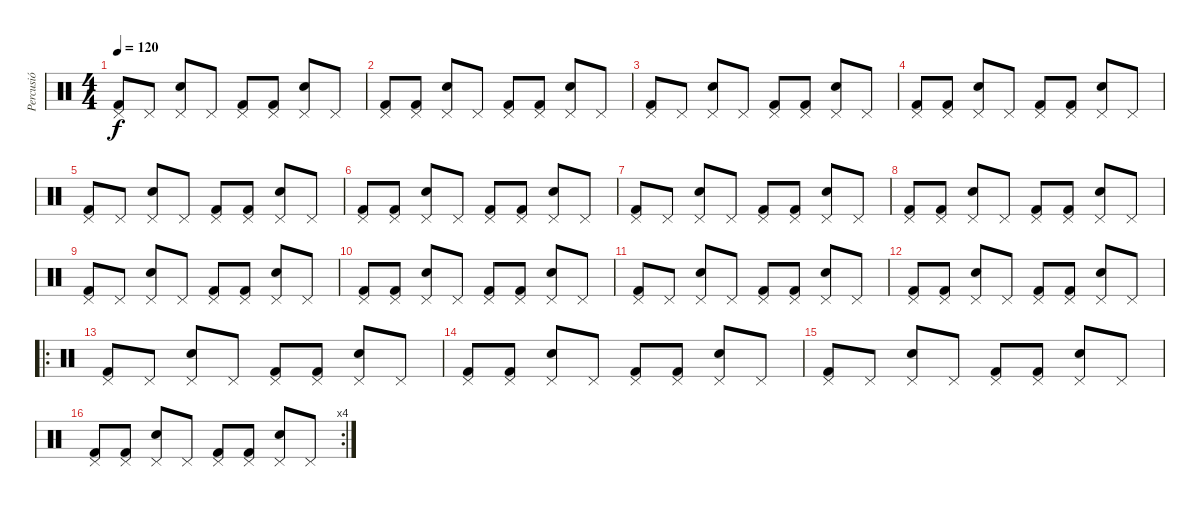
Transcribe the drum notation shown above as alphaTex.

\track ("Percusió" "Percusió") {instrument percussion}
\staff {score}
\articulation defaults
\ts (4 4)
\tempo 120
\clef neutral
\ks c
("Pedal Hi-Hat (hit)" "Kick (hit) 2").8{dy f} "Pedal Hi-Hat (hit)".8 ("Pedal Hi-Hat (hit)" "Snare (hit) 2").8 "Pedal Hi-Hat (hit)".8 ("Pedal Hi-Hat (hit)" "Kick (hit) 2").8 ("Pedal Hi-Hat (hit)" "Kick (hit) 2").8 ("Pedal Hi-Hat (hit)" "Snare (hit) 2").8 "Pedal Hi-Hat (hit)".8 |
("Pedal Hi-Hat (hit)" "Kick (hit) 2").8 ("Pedal Hi-Hat (hit)" "Kick (hit) 2").8 ("Pedal Hi-Hat (hit)" "Snare (hit) 2").8 "Pedal Hi-Hat (hit)".8 ("Pedal Hi-Hat (hit)" "Kick (hit) 2").8 ("Pedal Hi-Hat (hit)" "Kick (hit) 2").8 ("Pedal Hi-Hat (hit)" "Snare (hit) 2").8 "Pedal Hi-Hat (hit)".8 |
("Pedal Hi-Hat (hit)" "Kick (hit) 2").8 "Pedal Hi-Hat (hit)".8 ("Pedal Hi-Hat (hit)" "Snare (hit) 2").8 "Pedal Hi-Hat (hit)".8 ("Pedal Hi-Hat (hit)" "Kick (hit) 2").8 ("Pedal Hi-Hat (hit)" "Kick (hit) 2").8 ("Pedal Hi-Hat (hit)" "Snare (hit) 2").8 "Pedal Hi-Hat (hit)".8 |
("Pedal Hi-Hat (hit)" "Kick (hit) 2").8 ("Pedal Hi-Hat (hit)" "Kick (hit) 2").8 ("Pedal Hi-Hat (hit)" "Snare (hit) 2").8 "Pedal Hi-Hat (hit)".8 ("Pedal Hi-Hat (hit)" "Kick (hit) 2").8 ("Pedal Hi-Hat (hit)" "Kick (hit) 2").8 ("Pedal Hi-Hat (hit)" "Snare (hit) 2").8 "Pedal Hi-Hat (hit)".8 |
("Pedal Hi-Hat (hit)" "Kick (hit) 2").8 "Pedal Hi-Hat (hit)".8 ("Pedal Hi-Hat (hit)" "Snare (hit) 2").8 "Pedal Hi-Hat (hit)".8 ("Pedal Hi-Hat (hit)" "Kick (hit) 2").8 ("Pedal Hi-Hat (hit)" "Kick (hit) 2").8 ("Pedal Hi-Hat (hit)" "Snare (hit) 2").8 "Pedal Hi-Hat (hit)".8 |
("Pedal Hi-Hat (hit)" "Kick (hit) 2").8 ("Pedal Hi-Hat (hit)" "Kick (hit) 2").8 ("Pedal Hi-Hat (hit)" "Snare (hit) 2").8 "Pedal Hi-Hat (hit)".8 ("Pedal Hi-Hat (hit)" "Kick (hit) 2").8 ("Pedal Hi-Hat (hit)" "Kick (hit) 2").8 ("Pedal Hi-Hat (hit)" "Snare (hit) 2").8 "Pedal Hi-Hat (hit)".8 |
("Pedal Hi-Hat (hit)" "Kick (hit) 2").8 "Pedal Hi-Hat (hit)".8 ("Pedal Hi-Hat (hit)" "Snare (hit) 2").8 "Pedal Hi-Hat (hit)".8 ("Pedal Hi-Hat (hit)" "Kick (hit) 2").8 ("Pedal Hi-Hat (hit)" "Kick (hit) 2").8 ("Pedal Hi-Hat (hit)" "Snare (hit) 2").8 "Pedal Hi-Hat (hit)".8 |
("Pedal Hi-Hat (hit)" "Kick (hit) 2").8 ("Pedal Hi-Hat (hit)" "Kick (hit) 2").8 ("Pedal Hi-Hat (hit)" "Snare (hit) 2").8 "Pedal Hi-Hat (hit)".8 ("Pedal Hi-Hat (hit)" "Kick (hit) 2").8 ("Pedal Hi-Hat (hit)" "Kick (hit) 2").8 ("Pedal Hi-Hat (hit)" "Snare (hit) 2").8 "Pedal Hi-Hat (hit)".8 |
("Pedal Hi-Hat (hit)" "Kick (hit) 2").8 "Pedal Hi-Hat (hit)".8 ("Pedal Hi-Hat (hit)" "Snare (hit) 2").8 "Pedal Hi-Hat (hit)".8 ("Pedal Hi-Hat (hit)" "Kick (hit) 2").8 ("Pedal Hi-Hat (hit)" "Kick (hit) 2").8 ("Pedal Hi-Hat (hit)" "Snare (hit) 2").8 "Pedal Hi-Hat (hit)".8 |
("Pedal Hi-Hat (hit)" "Kick (hit) 2").8 ("Pedal Hi-Hat (hit)" "Kick (hit) 2").8 ("Pedal Hi-Hat (hit)" "Snare (hit) 2").8 "Pedal Hi-Hat (hit)".8 ("Pedal Hi-Hat (hit)" "Kick (hit) 2").8 ("Pedal Hi-Hat (hit)" "Kick (hit) 2").8 ("Pedal Hi-Hat (hit)" "Snare (hit) 2").8 "Pedal Hi-Hat (hit)".8 |
("Pedal Hi-Hat (hit)" "Kick (hit) 2").8 "Pedal Hi-Hat (hit)".8 ("Pedal Hi-Hat (hit)" "Snare (hit) 2").8 "Pedal Hi-Hat (hit)".8 ("Pedal Hi-Hat (hit)" "Kick (hit) 2").8 ("Pedal Hi-Hat (hit)" "Kick (hit) 2").8 ("Pedal Hi-Hat (hit)" "Snare (hit) 2").8 "Pedal Hi-Hat (hit)".8 |
("Pedal Hi-Hat (hit)" "Kick (hit) 2").8 ("Pedal Hi-Hat (hit)" "Kick (hit) 2").8 ("Pedal Hi-Hat (hit)" "Snare (hit) 2").8 "Pedal Hi-Hat (hit)".8 ("Pedal Hi-Hat (hit)" "Kick (hit) 2").8 ("Pedal Hi-Hat (hit)" "Kick (hit) 2").8 ("Pedal Hi-Hat (hit)" "Snare (hit) 2").8 "Pedal Hi-Hat (hit)".8 |
\ro
("Pedal Hi-Hat (hit)" "Kick (hit) 2").8 "Pedal Hi-Hat (hit)".8 ("Pedal Hi-Hat (hit)" "Snare (hit) 2").8 "Pedal Hi-Hat (hit)".8 ("Pedal Hi-Hat (hit)" "Kick (hit) 2").8 ("Pedal Hi-Hat (hit)" "Kick (hit) 2").8 ("Pedal Hi-Hat (hit)" "Snare (hit) 2").8 "Pedal Hi-Hat (hit)".8 |
("Pedal Hi-Hat (hit)" "Kick (hit) 2").8 ("Pedal Hi-Hat (hit)" "Kick (hit) 2").8 ("Pedal Hi-Hat (hit)" "Snare (hit) 2").8 "Pedal Hi-Hat (hit)".8 ("Pedal Hi-Hat (hit)" "Kick (hit) 2").8 ("Pedal Hi-Hat (hit)" "Kick (hit) 2").8 ("Pedal Hi-Hat (hit)" "Snare (hit) 2").8 "Pedal Hi-Hat (hit)".8 |
("Pedal Hi-Hat (hit)" "Kick (hit) 2").8 "Pedal Hi-Hat (hit)".8 ("Pedal Hi-Hat (hit)" "Snare (hit) 2").8 "Pedal Hi-Hat (hit)".8 ("Pedal Hi-Hat (hit)" "Kick (hit) 2").8 ("Pedal Hi-Hat (hit)" "Kick (hit) 2").8 ("Pedal Hi-Hat (hit)" "Snare (hit) 2").8 "Pedal Hi-Hat (hit)".8 |
\rc 4
("Pedal Hi-Hat (hit)" "Kick (hit) 2").8 ("Pedal Hi-Hat (hit)" "Kick (hit) 2").8 ("Pedal Hi-Hat (hit)" "Snare (hit) 2").8 "Pedal Hi-Hat (hit)".8 ("Pedal Hi-Hat (hit)" "Kick (hit) 2").8 ("Pedal Hi-Hat (hit)" "Kick (hit) 2").8 ("Pedal Hi-Hat (hit)" "Snare (hit) 2").8 "Pedal Hi-Hat (hit)".8
